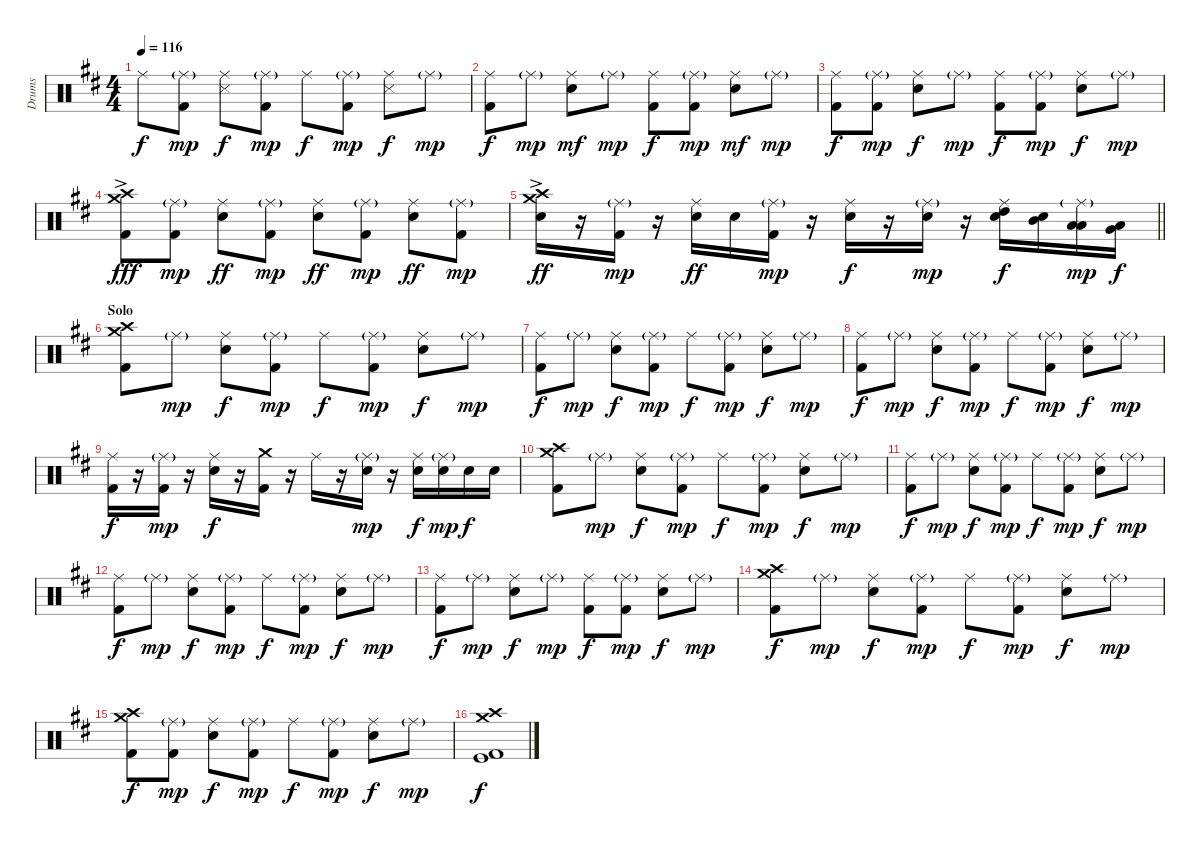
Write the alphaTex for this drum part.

\track ("Drums" "Drums") {instrument percussion}
\staff {score}
\articulation defaults
\ts (4 4)
\tempo 116
\clef neutral
\ks d "Ride (middle)".8{dy f}
("Ride (middle)"{g} "Kick (hit) 2").8{dy mp} ("Ride (middle)" "Snare (side stick) 3").8{dy f} ("Ride (middle)"{g} "Kick (hit) 2").8{dy mp} "Ride (middle)".8{dy f} ("Ride (middle)"{g} "Kick (hit) 2").8{dy mp} ("Ride (middle)" "Snare (side stick) 3").8{dy f} "Ride (middle)"{g}.8{dy mp} |
("Ride (middle)" "Kick (hit) 2").8{dy f} "Ride (middle)"{g}.8{dy mp} ("Ride (middle)" "Snare (hit) 2").8{dy mf} "Ride (middle)"{g}.8{dy mp} ("Ride (middle)" "Kick (hit) 2").8{dy f} ("Ride (middle)"{g} "Kick (hit) 2").8{dy mp} ("Ride (middle)" "Snare (hit) 2").8{dy mf} "Ride (middle)"{g}.8{dy mp} |
("Ride (middle)" "Kick (hit) 2").8{dy f} ("Ride (middle)"{g} "Kick (hit) 2").8{dy mp} ("Ride (middle)" "Snare (hit) 2").8{dy f} "Ride (middle)"{g}.8{dy mp} ("Ride (middle)" "Kick (hit) 2").8{dy f} ("Ride (middle)"{g} "Kick (hit) 2").8{dy mp} ("Ride (middle)" "Snare (hit) 2").8{dy f} "Ride (middle)"{g}.8{dy mp} |
("Crash high (hit)"{ac} "Crash medium (hit)" "Kick (hit) 2").8{dy fff} ("Ride (middle)"{g} "Kick (hit) 2").8{dy mp} ("Ride (middle)" "Snare (hit) 2").8{dy ff} ("Ride (middle)"{g} "Kick (hit) 2").8{dy mp} ("Ride (middle)" "Snare (hit) 2").8{dy ff} ("Ride (middle)"{g} "Kick (hit) 2").8{dy mp} ("Ride (middle)" "Snare (hit) 2").8{dy ff} ("Ride (middle)"{g} "Kick (hit) 2").8{dy mp} |
\barLineRight lightlight
("Crash high (hit)"{ac} "Crash medium (hit)" "Snare (hit) 2").16{dy ff} r.16 ("Ride (middle)"{g} "Kick (hit) 2").16{dy mp} r.16 ("Ride (middle)" "Snare (hit) 2").16{dy ff} "Snare (hit) 2".16 ("Ride (middle)"{g} "Kick (hit) 2").16{dy mp} r.16 ("Ride (middle)" "Snare (hit) 2").16{dy f} r.16 ("Ride (middle)"{g} "Snare (hit) 2").16{dy mp} r.16 ("Ride (middle)" "High Tom (hit)" "Electric Snare (hit)").16{dy f} ("Mid Tom (hit)" "Electric Snare (hit)").16 ("Ride (middle)"{g} "Low Tom (hit)" "Low Floor Tom (hit)").16{dy mp} ("Very Low Tom (hit)" "Low Floor Tom (hit)").16{dy f} |
\section ("" "Solo")
("Crash high (hit)" "Crash medium (hit)" "Kick (hit) 2").8 "Ride (middle)"{g}.8{dy mp} ("Ride (middle)" "Snare (hit) 2").8{dy f} ("Ride (middle)"{g} "Kick (hit) 2").8{dy mp} "Ride (middle)".8{dy f} ("Ride (middle)"{g} "Kick (hit) 2").8{dy mp} ("Ride (middle)" "Snare (hit) 2").8{dy f} "Ride (middle)"{g}.8{dy mp} |
("Ride (middle)" "Kick (hit) 2").8{dy f} "Ride (middle)"{g}.8{dy mp} ("Ride (middle)" "Snare (hit) 2").8{dy f} ("Ride (middle)"{g} "Kick (hit) 2").8{dy mp} "Ride (middle)".8{dy f} ("Ride (middle)"{g} "Kick (hit) 2").8{dy mp} ("Ride (middle)" "Snare (hit) 2").8{dy f} "Ride (middle)"{g}.8{dy mp} |
("Ride (middle)" "Kick (hit) 2").8{dy f} "Ride (middle)"{g}.8{dy mp} ("Ride (middle)" "Snare (hit) 2").8{dy f} ("Ride (middle)"{g} "Kick (hit) 2").8{dy mp} "Ride (middle)".8{dy f} ("Ride (middle)"{g} "Kick (hit) 2").8{dy mp} ("Ride (middle)" "Snare (hit) 2").8{dy f} "Ride (middle)"{g}.8{dy mp} |
("Ride (middle)" "Kick (hit) 2").16{dy f} r.16 ("Ride (middle)"{g} "Kick (hit) 2").16{dy mp} r.16 ("Ride (middle)" "Snare (hit) 2").16{dy f} r.16 ("Crash medium (hit)" "Kick (hit) 2").16 r.16 "Ride (middle)".16 r.16 ("Ride (middle)"{g} "Snare (hit) 2").16{dy mp} r.16 ("Ride (middle)" "Snare (hit) 2").16{dy f} ("Ride (middle)"{g} "Snare (hit) 2").16{dy mp} "Snare (hit) 2".16{dy f} "Snare (hit) 2".16 |
("Crash high (hit)" "Crash medium (hit)" "Kick (hit) 2").8 "Ride (middle)"{g}.8{dy mp} ("Ride (middle)" "Snare (hit) 2").8{dy f} ("Ride (middle)"{g} "Kick (hit) 2").8{dy mp} "Ride (middle)".8{dy f} ("Ride (middle)"{g} "Kick (hit) 2").8{dy mp} ("Ride (middle)" "Snare (hit) 2").8{dy f} "Ride (middle)"{g}.8{dy mp} |
("Ride (middle)" "Kick (hit) 2").8{dy f} "Ride (middle)"{g}.8{dy mp} ("Ride (middle)" "Snare (hit) 2").8{dy f} ("Ride (middle)"{g} "Kick (hit) 2").8{dy mp} "Ride (middle)".8{dy f} ("Ride (middle)"{g} "Kick (hit) 2").8{dy mp} ("Ride (middle)" "Snare (hit) 2").8{dy f} "Ride (middle)"{g}.8{dy mp} |
("Ride (middle)" "Kick (hit) 2").8{dy f} "Ride (middle)"{g}.8{dy mp} ("Ride (middle)" "Snare (hit) 2").8{dy f} ("Ride (middle)"{g} "Kick (hit) 2").8{dy mp} "Ride (middle)".8{dy f} ("Ride (middle)"{g} "Kick (hit) 2").8{dy mp} ("Ride (middle)" "Snare (hit) 2").8{dy f} "Ride (middle)"{g}.8{dy mp} |
("Ride (middle)" "Kick (hit) 2").8{dy f} "Ride (middle)"{g}.8{dy mp} ("Ride (middle)" "Snare (hit) 2").8{dy f} "Ride (middle)"{g}.8{dy mp} ("Ride (middle)" "Kick (hit) 2").8{dy f} ("Ride (middle)"{g} "Kick (hit) 2").8{dy mp} ("Ride (middle)" "Snare (hit) 2").8{dy f} "Ride (middle)"{g}.8{dy mp} |
("Crash high (hit)" "Crash medium (hit)" "Kick (hit) 2").8{dy f} "Ride (middle)"{g}.8{dy mp} ("Ride (middle)" "Snare (hit) 2").8{dy f} ("Ride (middle)"{g} "Kick (hit) 2").8{dy mp} "Ride (middle)".8{dy f} ("Ride (middle)"{g} "Kick (hit) 2").8{dy mp} ("Ride (middle)" "Snare (hit) 2").8{dy f} "Ride (middle)"{g}.8{dy mp} |
("Crash high (hit)" "Crash medium (hit)" "Kick (hit) 2").8{dy f} ("Ride (middle)"{g} "Kick (hit) 2").8{dy mp} ("Ride (middle)" "Snare (hit) 2").8{dy f} ("Ride (middle)"{g} "Kick (hit) 2").8{dy mp} "Ride (middle)".8{dy f} ("Ride (middle)"{g} "Kick (hit) 2").8{dy mp} ("Ride (middle)" "Snare (hit) 2").8{dy f} "Ride (middle)"{g}.8{dy mp} |
("Crash high (hit)" "Crash medium (hit)" "Kick (hit)" "Kick (hit) 2").1{dy f}
